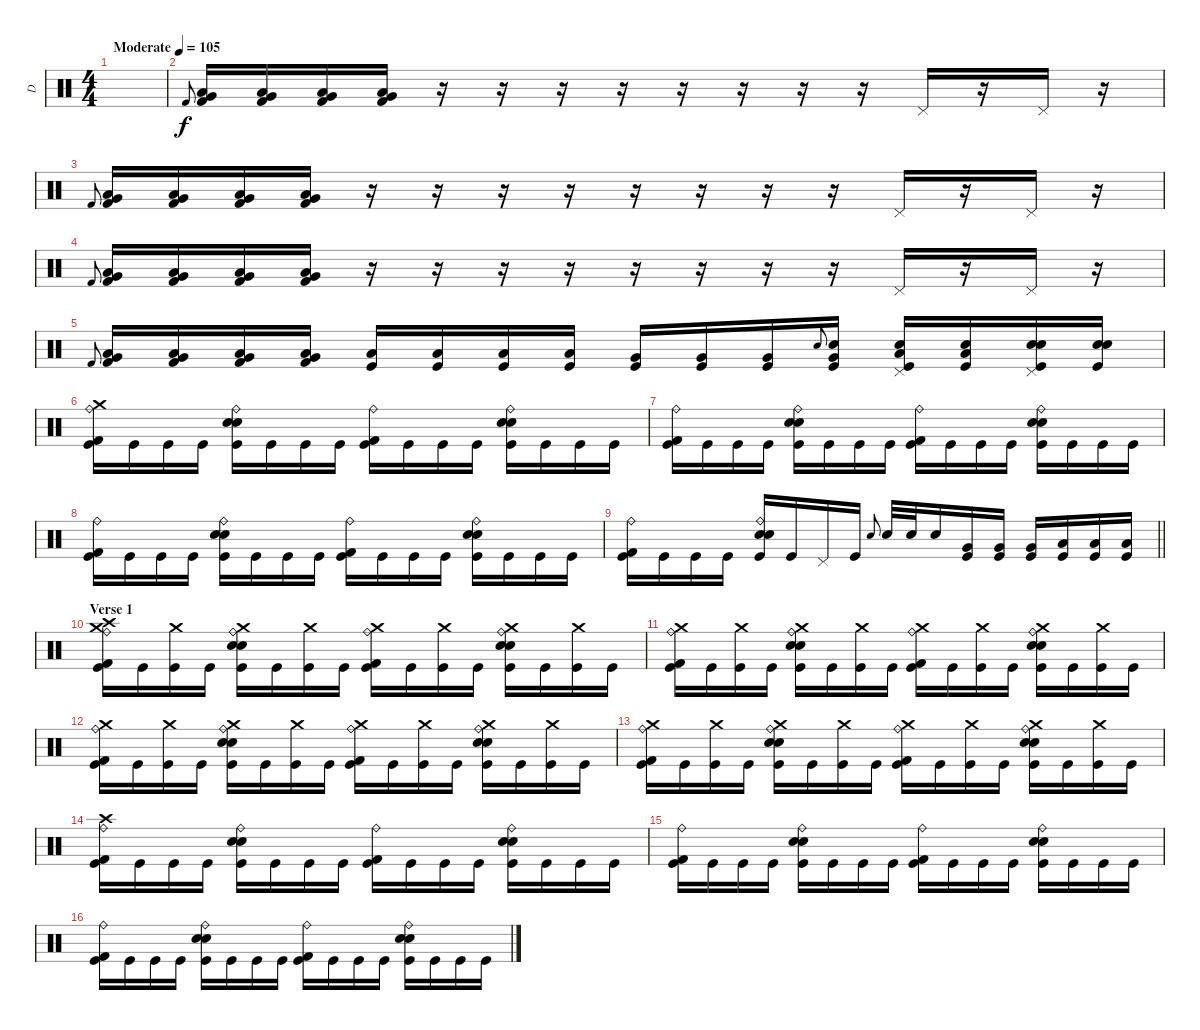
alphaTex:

\track ("D" "D") {instrument percussion}
\staff {score}
\articulation defaults
\ts (4 4)
\tempo (105 "Moderate")
\clef neutral
\ks c
|
"Kick (hit) 2".8{gr onbeat} ("Low Floor Tom (hit)" "Very Low Tom (hit)" "Kick (hit) 2").16 ("Low Floor Tom (hit)" "Very Low Tom (hit)" "Kick (hit) 2").16 ("Low Floor Tom (hit)" "Very Low Tom (hit)" "Kick (hit) 2").16 ("Low Floor Tom (hit)" "Very Low Tom (hit)" "Kick (hit) 2").16 r.16 r.16 r.16 r.16 r.16 r.16 r.16 r.16 "Pedal Hi-Hat (hit)".16 r.16 "Pedal Hi-Hat (hit)".16 r.16 |
"Kick (hit) 2".8{gr onbeat} ("Low Floor Tom (hit)" "Very Low Tom (hit)" "Kick (hit) 2").16 ("Low Floor Tom (hit)" "Very Low Tom (hit)" "Kick (hit) 2").16 ("Low Floor Tom (hit)" "Very Low Tom (hit)" "Kick (hit) 2").16 ("Low Floor Tom (hit)" "Very Low Tom (hit)" "Kick (hit) 2").16 r.16 r.16 r.16 r.16 r.16 r.16 r.16 r.16 "Pedal Hi-Hat (hit)".16 r.16 "Pedal Hi-Hat (hit)".16 r.16 |
"Kick (hit) 2".8{gr onbeat} ("Low Floor Tom (hit)" "Very Low Tom (hit)" "Kick (hit) 2").16 ("Low Floor Tom (hit)" "Very Low Tom (hit)" "Kick (hit) 2").16 ("Low Floor Tom (hit)" "Very Low Tom (hit)" "Kick (hit) 2").16 ("Low Floor Tom (hit)" "Very Low Tom (hit)" "Kick (hit) 2").16 r.16 r.16 r.16 r.16 r.16 r.16 r.16 r.16 "Pedal Hi-Hat (hit)".16 r.16 "Pedal Hi-Hat (hit)".16 r.16 |
"Kick (hit) 2".8{gr onbeat} ("Low Floor Tom (hit)" "Very Low Tom (hit)" "Kick (hit) 2").16 ("Low Floor Tom (hit)" "Very Low Tom (hit)" "Kick (hit) 2").16 ("Low Floor Tom (hit)" "Very Low Tom (hit)" "Kick (hit) 2").16 ("Low Floor Tom (hit)" "Very Low Tom (hit)" "Kick (hit) 2").16 ("Low Floor Tom (hit)" "Kick (hit)").16 ("Low Floor Tom (hit)" "Kick (hit)").16 ("Low Floor Tom (hit)" "Kick (hit)").16 ("Low Floor Tom (hit)" "Kick (hit)").16 ("Very Low Tom (hit)" "Kick (hit)").16 ("Very Low Tom (hit)" "Kick (hit)").16 ("Very Low Tom (hit)" "Kick (hit)").16 "Electric Snare (hit)".8{gr onbeat} ("Electric Snare (hit)" "Very Low Tom (hit)" "Kick (hit)").16 ("Electric Snare (hit)" "Low Tom (hit)" "Kick (hit)" "Pedal Hi-Hat (hit)").16 ("Electric Snare (hit)" "Low Tom (hit)" "Kick (hit)").16 ("Electric Snare (hit)" "Electric Snare (hit)" "Kick (hit)" "Pedal Hi-Hat (hit)").16 ("Electric Snare (hit)" "Electric Snare (hit)" "Kick (hit)").16 |
("Crash medium (hit)" "Kick (hit) 2" "Kick (hit)" "Ride (bell)").16 "Kick (hit)".16 "Kick (hit)".16 "Kick (hit)".16 ("Electric Snare (hit)" "Electric Snare (hit)" "Kick (hit)" "Ride (bell)").16 "Kick (hit)".16 "Kick (hit)".16 "Kick (hit)".16 ("Kick (hit) 2" "Kick (hit)" "Ride (bell)").16 "Kick (hit)".16 "Kick (hit)".16 "Kick (hit)".16 ("Electric Snare (hit)" "Electric Snare (hit)" "Kick (hit)" "Ride (bell)").16 "Kick (hit)".16 "Kick (hit)".16 "Kick (hit)".16 |
("Kick (hit) 2" "Kick (hit)" "Ride (bell)").16 "Kick (hit)".16 "Kick (hit)".16 "Kick (hit)".16 ("Electric Snare (hit)" "Electric Snare (hit)" "Kick (hit)" "Ride (bell)").16 "Kick (hit)".16 "Kick (hit)".16 "Kick (hit)".16 ("Kick (hit) 2" "Kick (hit)" "Ride (bell)").16 "Kick (hit)".16 "Kick (hit)".16 "Kick (hit)".16 ("Electric Snare (hit)" "Electric Snare (hit)" "Kick (hit)" "Ride (bell)").16 "Kick (hit)".16 "Kick (hit)".16 "Kick (hit)".16 |
("Kick (hit) 2" "Kick (hit)" "Ride (bell)").16 "Kick (hit)".16 "Kick (hit)".16 "Kick (hit)".16 ("Electric Snare (hit)" "Electric Snare (hit)" "Kick (hit)" "Ride (bell)").16 "Kick (hit)".16 "Kick (hit)".16 "Kick (hit)".16 ("Kick (hit) 2" "Kick (hit)" "Ride (bell)").16 "Kick (hit)".16 "Kick (hit)".16 "Kick (hit)".16 ("Electric Snare (hit)" "Electric Snare (hit)" "Kick (hit)" "Ride (bell)").16 "Kick (hit)".16 "Kick (hit)".16 "Kick (hit)".16 |
\barLineRight lightlight
("Kick (hit) 2" "Kick (hit)" "Ride (bell)").16 "Kick (hit)".16 "Kick (hit)".16 "Kick (hit)".16 ("Electric Snare (hit)" "Electric Snare (hit)" "Kick (hit)" "Ride (bell)").16 "Kick (hit)".16 "Pedal Hi-Hat (hit)".16 "Kick (hit)".16 "Electric Snare (hit)".8{gr onbeat} "Electric Snare (hit)".32 "Electric Snare (hit)".32 "Electric Snare (hit)".16 ("Very Low Tom (hit)" "Kick (hit)").16 ("Very Low Tom (hit)" "Kick (hit)").16 ("Very Low Tom (hit)" "Kick (hit)").16 ("Low Tom (hit)" "Kick (hit)").16 ("Low Tom (hit)" "Kick (hit)").16 ("Low Tom (hit)" "Kick (hit)").16 |
\section ("" "Verse 1")
("Crash medium (hit)" "Crash high (hit)" "Kick (hit) 2" "Kick (hit)" "Ride (bell)").16 "Kick (hit)".16 ("Crash medium (hit)" "Kick (hit)").16 "Kick (hit)".16 ("Crash medium (hit)" "Electric Snare (hit)" "Electric Snare (hit)" "Kick (hit)" "Ride (bell)").16 "Kick (hit)".16 ("Crash medium (hit)" "Kick (hit)").16 "Kick (hit)".16 ("Crash medium (hit)" "Kick (hit) 2" "Kick (hit)" "Ride (bell)").16 "Kick (hit)".16 ("Crash medium (hit)" "Kick (hit)").16 "Kick (hit)".16 ("Crash medium (hit)" "Electric Snare (hit)" "Electric Snare (hit)" "Kick (hit)" "Ride (bell)").16 "Kick (hit)".16 ("Crash medium (hit)" "Kick (hit)").16 "Kick (hit)".16 |
("Crash medium (hit)" "Kick (hit) 2" "Kick (hit)" "Ride (bell)").16 "Kick (hit)".16 ("Crash medium (hit)" "Kick (hit)").16 "Kick (hit)".16 ("Crash medium (hit)" "Electric Snare (hit)" "Electric Snare (hit)" "Kick (hit)" "Ride (bell)").16 "Kick (hit)".16 ("Crash medium (hit)" "Kick (hit)").16 "Kick (hit)".16 ("Crash medium (hit)" "Kick (hit) 2" "Kick (hit)" "Ride (bell)").16 "Kick (hit)".16 ("Crash medium (hit)" "Kick (hit)").16 "Kick (hit)".16 ("Crash medium (hit)" "Electric Snare (hit)" "Electric Snare (hit)" "Kick (hit)" "Ride (bell)").16 "Kick (hit)".16 ("Crash medium (hit)" "Kick (hit)").16 "Kick (hit)".16 |
("Crash medium (hit)" "Kick (hit) 2" "Kick (hit)" "Ride (bell)").16 "Kick (hit)".16 ("Crash medium (hit)" "Kick (hit)").16 "Kick (hit)".16 ("Crash medium (hit)" "Electric Snare (hit)" "Electric Snare (hit)" "Kick (hit)" "Ride (bell)").16 "Kick (hit)".16 ("Crash medium (hit)" "Kick (hit)").16 "Kick (hit)".16 ("Crash medium (hit)" "Kick (hit) 2" "Kick (hit)" "Ride (bell)").16 "Kick (hit)".16 ("Crash medium (hit)" "Kick (hit)").16 "Kick (hit)".16 ("Crash medium (hit)" "Electric Snare (hit)" "Electric Snare (hit)" "Kick (hit)" "Ride (bell)").16 "Kick (hit)".16 ("Crash medium (hit)" "Kick (hit)").16 "Kick (hit)".16 |
("Crash medium (hit)" "Kick (hit) 2" "Kick (hit)" "Ride (bell)").16 "Kick (hit)".16 ("Crash medium (hit)" "Kick (hit)").16 "Kick (hit)".16 ("Crash medium (hit)" "Electric Snare (hit)" "Electric Snare (hit)" "Kick (hit)" "Ride (bell)").16 "Kick (hit)".16 ("Crash medium (hit)" "Kick (hit)").16 "Kick (hit)".16 ("Crash medium (hit)" "Kick (hit) 2" "Kick (hit)" "Ride (bell)").16 "Kick (hit)".16 ("Crash medium (hit)" "Kick (hit)").16 "Kick (hit)".16 ("Crash medium (hit)" "Electric Snare (hit)" "Electric Snare (hit)" "Kick (hit)" "Ride (bell)").16 "Kick (hit)".16 ("Crash medium (hit)" "Kick (hit)").16 "Kick (hit)".16 |
("Crash high (hit)" "Kick (hit) 2" "Kick (hit)" "Ride (bell)").16 "Kick (hit)".16 "Kick (hit)".16 "Kick (hit)".16 ("Electric Snare (hit)" "Electric Snare (hit)" "Kick (hit)" "Ride (bell)").16 "Kick (hit)".16 "Kick (hit)".16 "Kick (hit)".16 ("Kick (hit) 2" "Kick (hit)" "Ride (bell)").16 "Kick (hit)".16 "Kick (hit)".16 "Kick (hit)".16 ("Electric Snare (hit)" "Electric Snare (hit)" "Kick (hit)" "Ride (bell)").16 "Kick (hit)".16 "Kick (hit)".16 "Kick (hit)".16 |
("Kick (hit) 2" "Kick (hit)" "Ride (bell)").16 "Kick (hit)".16 "Kick (hit)".16 "Kick (hit)".16 ("Electric Snare (hit)" "Electric Snare (hit)" "Kick (hit)" "Ride (bell)").16 "Kick (hit)".16 "Kick (hit)".16 "Kick (hit)".16 ("Kick (hit) 2" "Kick (hit)" "Ride (bell)").16 "Kick (hit)".16 "Kick (hit)".16 "Kick (hit)".16 ("Electric Snare (hit)" "Electric Snare (hit)" "Kick (hit)" "Ride (bell)").16 "Kick (hit)".16 "Kick (hit)".16 "Kick (hit)".16 |
("Kick (hit) 2" "Kick (hit)" "Ride (bell)").16 "Kick (hit)".16 "Kick (hit)".16 "Kick (hit)".16 ("Electric Snare (hit)" "Electric Snare (hit)" "Kick (hit)" "Ride (bell)").16 "Kick (hit)".16 "Kick (hit)".16 "Kick (hit)".16 ("Kick (hit) 2" "Kick (hit)" "Ride (bell)").16 "Kick (hit)".16 "Kick (hit)".16 "Kick (hit)".16 ("Electric Snare (hit)" "Electric Snare (hit)" "Kick (hit)" "Ride (bell)").16 "Kick (hit)".16 "Kick (hit)".16 "Kick (hit)".16
